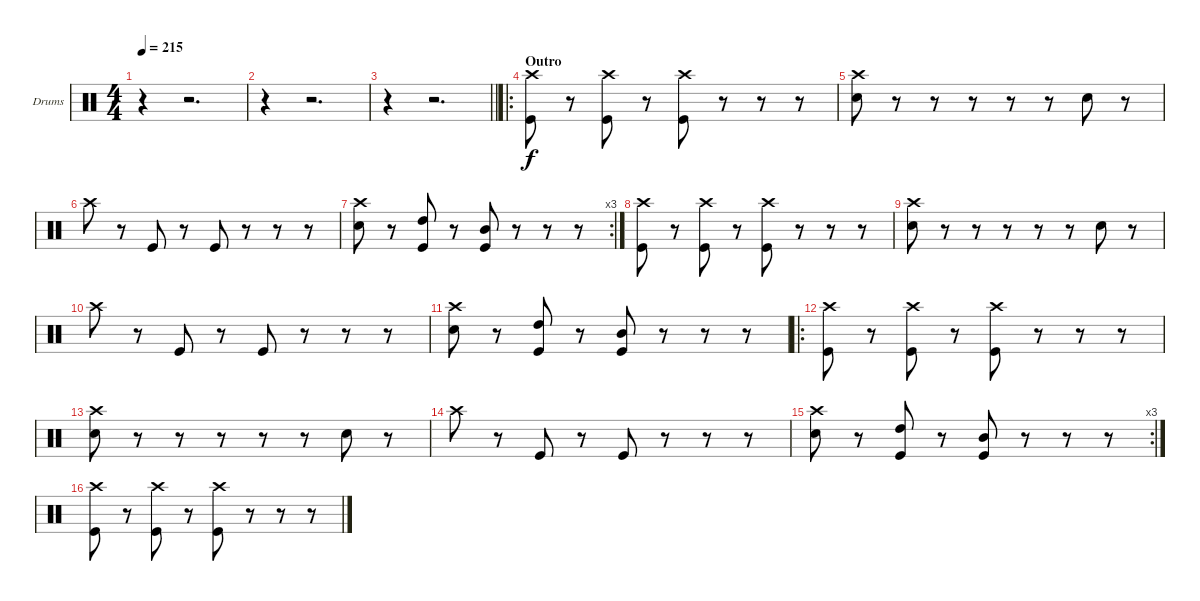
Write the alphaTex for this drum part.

\bracketExtendMode groupsimilarinstruments
\firstSystemTrackNameOrientation horizontal
\otherSystemsTrackNameOrientation horizontal
\track ("Dave McClain" "Drums") {instrument percussion}
\staff {score}
\articulation defaults
\ts (4 4)
\tempo 215
\clef neutral
\ks c
r.4{dy f} r.2{d} |
r.4 r.2{d} |
\barLineRight lightlight
r.4 r.2{d} |
\ro
\section ("" "Outro")
("Crash high (hit)" "Kick (hit)").8 r.8 ("Crash high (hit)" "Kick (hit)").8 r.8 ("Crash high (hit)" "Kick (hit)").8 r.8 r.8 r.8 |
("Crash high (hit)" "Snare (hit) 2").8 r.8 r.8 r.8 r.8 r.8 "Snare (hit) 2".8 r.8 |
"Crash high (hit)".8 r.8 "Kick (hit)".8 r.8 "Kick (hit)".8 r.8 r.8 r.8 |
\rc 3
("Crash high (hit)" "Snare (hit) 2").8 r.8 ("High Tom (hit)" "Kick (hit)").8 r.8 ("Mid Tom (hit)" "Kick (hit)").8 r.8 r.8 r.8 |
("Crash high (hit)" "Kick (hit)").8 r.8 ("Crash high (hit)" "Kick (hit)").8 r.8 ("Crash high (hit)" "Kick (hit)").8 r.8 r.8 r.8 |
("Crash high (hit)" "Snare (hit) 2").8 r.8 r.8 r.8 r.8 r.8 "Snare (hit) 2".8 r.8 |
"Crash high (hit)".8 r.8 "Kick (hit)".8 r.8 "Kick (hit)".8 r.8 r.8 r.8 |
("Crash high (hit)" "Snare (hit) 2").8 r.8 ("High Tom (hit)" "Kick (hit)").8 r.8 ("Mid Tom (hit)" "Kick (hit)").8 r.8 r.8 r.8 |
\ro
("Crash high (hit)" "Kick (hit)").8 r.8 ("Crash high (hit)" "Kick (hit)").8 r.8 ("Crash high (hit)" "Kick (hit)").8 r.8 r.8 r.8 |
("Crash high (hit)" "Snare (hit) 2").8 r.8 r.8 r.8 r.8 r.8 "Snare (hit) 2".8 r.8 |
"Crash high (hit)".8 r.8 "Kick (hit)".8 r.8 "Kick (hit)".8 r.8 r.8 r.8 |
\rc 3
("Crash high (hit)" "Snare (hit) 2").8 r.8 ("High Tom (hit)" "Kick (hit)").8 r.8 ("Mid Tom (hit)" "Kick (hit)").8 r.8 r.8 r.8 |
("Crash high (hit)" "Kick (hit)").8 r.8 ("Crash high (hit)" "Kick (hit)").8 r.8 ("Crash high (hit)" "Kick (hit)").8 r.8 r.8 r.8
